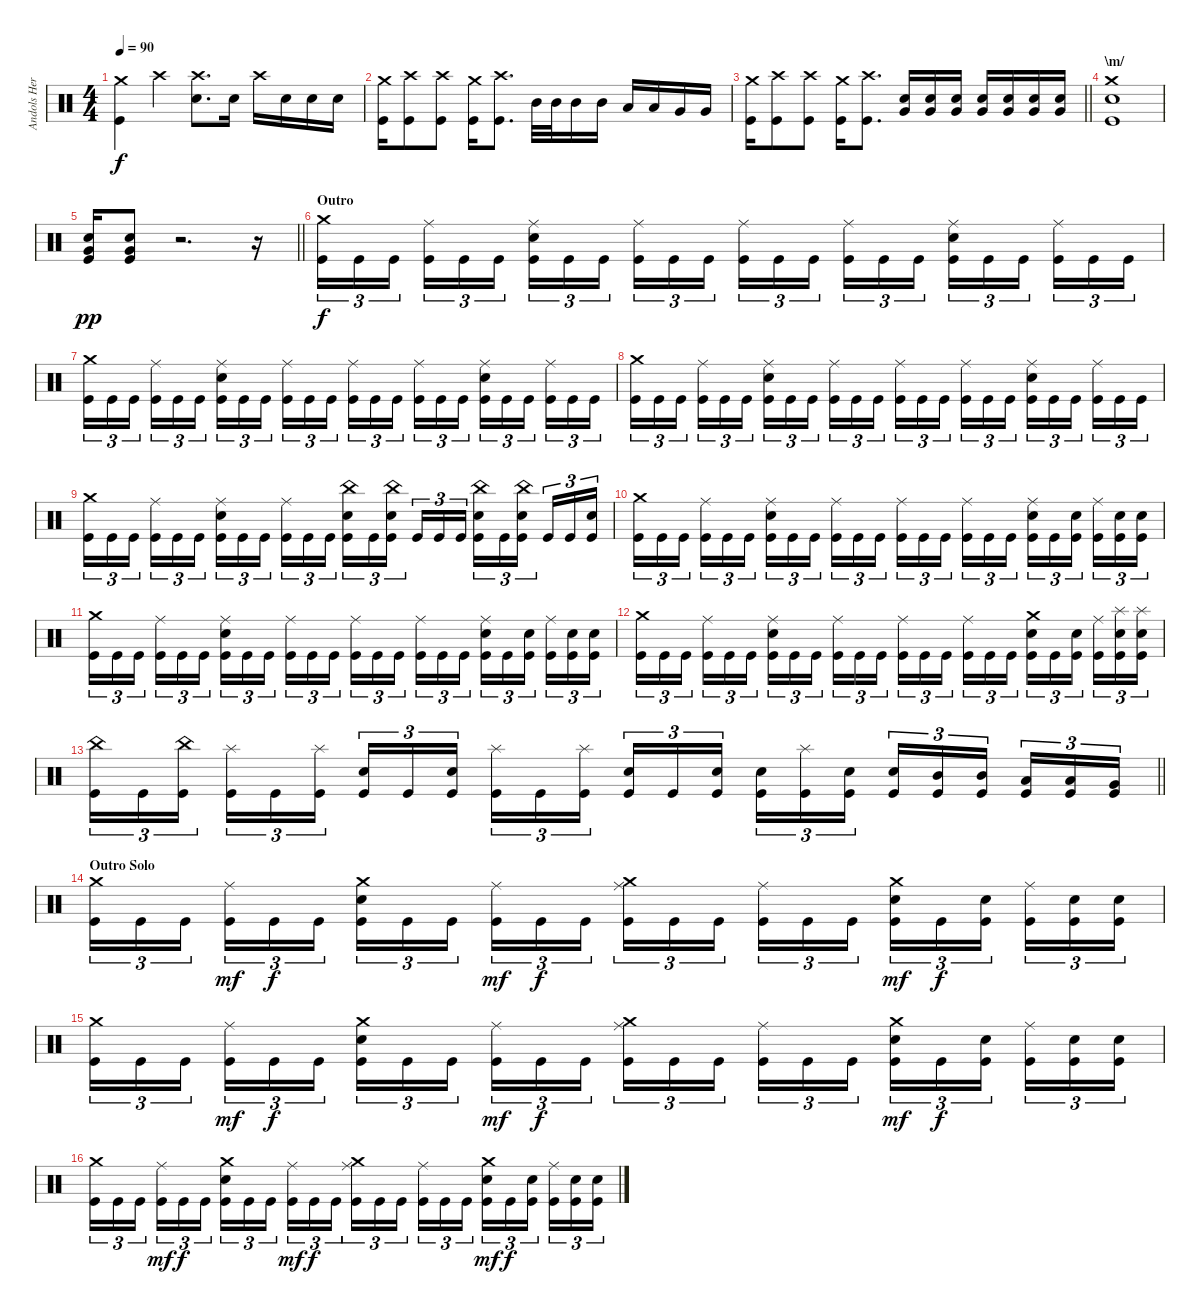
\track ("Andols Herrick" "Andols Her") {instrument percussion}
\staff
\articulation defaults
\ts (4 4)
\tempo 90
\clef neutral
\ks c
("Crash medium (hit)" "Kick (hit)").4{dy f} "Crash high (hit)".4 ("Crash high (hit)" "Electric Snare (hit)").8{d} "Electric Snare (hit)".16 "Crash high (hit)".16 "Electric Snare (hit)".16 "Electric Snare (hit)".16 "Electric Snare (hit)".16 |
("Crash medium (hit)" "Kick (hit)").16 ("Crash high (hit)" "Kick (hit)").8 ("Crash high (hit)" "Kick (hit)").8 ("Crash medium (hit)" "Kick (hit)").16 ("Crash high (hit)" "Kick (hit)").8{d} "Mid Tom (hit)".32 "Mid Tom (hit)".32 "Mid Tom (hit)".16 "Mid Tom (hit)".16 "Low Tom (hit)".16 "Low Tom (hit)".16 "Very Low Tom (hit)".16 "Very Low Tom (hit)".16 |
\barLineRight lightlight
("Crash medium (hit)" "Kick (hit)").16 ("Crash high (hit)" "Kick (hit)").8 ("Crash high (hit)" "Kick (hit)").8 ("Crash medium (hit)" "Kick (hit)").16 ("Crash high (hit)" "Kick (hit)").8{d} ("Electric Snare (hit)" "Very Low Tom (hit)").16 ("Electric Snare (hit)" "Very Low Tom (hit)").16 ("Electric Snare (hit)" "Very Low Tom (hit)").16 ("Electric Snare (hit)" "Very Low Tom (hit)").16 ("Electric Snare (hit)" "Very Low Tom (hit)").16 ("Electric Snare (hit)" "Very Low Tom (hit)").16 ("Electric Snare (hit)" "Very Low Tom (hit)").16 |
\section ("" "\\m/")
("Crash medium (hit)" "Electric Snare (hit)" "Kick (hit)").1 |
\barLineRight lightlight
("Electric Snare (hit)" "Very Low Tom (hit)" "Kick (hit)").16{dy pp} ("Electric Snare (hit)" "Very Low Tom (hit)" "Kick (hit)").8 r.2{d} r.16 |
\section ("" "Outro")
("Crash medium (hit)" "Kick (hit)").16{tu (3 2) dy f} "Kick (hit)".16{tu (3 2)} "Kick (hit)".16{tu (3 2) beam splitsecondary} ("Ride (middle)" "Kick (hit)").16{tu (3 2)} "Kick (hit)".16{tu (3 2)} "Kick (hit)".16{tu (3 2)} ("Ride (middle)" "Electric Snare (hit)" "Kick (hit)").16{tu (3 2)} "Kick (hit)".16{tu (3 2)} "Kick (hit)".16{tu (3 2) beam splitsecondary} ("Ride (middle)" "Kick (hit)").16{tu (3 2)} "Kick (hit)".16{tu (3 2)} "Kick (hit)".16{tu (3 2)} ("Ride (middle)" "Kick (hit)").16{tu (3 2)} "Kick (hit)".16{tu (3 2)} "Kick (hit)".16{tu (3 2) beam splitsecondary} ("Ride (middle)" "Kick (hit)").16{tu (3 2)} "Kick (hit)".16{tu (3 2)} "Kick (hit)".16{tu (3 2)} ("Ride (middle)" "Electric Snare (hit)" "Kick (hit)").16{tu (3 2)} "Kick (hit)".16{tu (3 2)} "Kick (hit)".16{tu (3 2) beam splitsecondary} ("Ride (middle)" "Kick (hit)").16{tu (3 2)} "Kick (hit)".16{tu (3 2)} "Kick (hit)".16{tu (3 2)} |
("Crash medium (hit)" "Kick (hit)").16{tu (3 2)} "Kick (hit)".16{tu (3 2)} "Kick (hit)".16{tu (3 2) beam splitsecondary} ("Ride (middle)" "Kick (hit)").16{tu (3 2)} "Kick (hit)".16{tu (3 2)} "Kick (hit)".16{tu (3 2)} ("Ride (middle)" "Electric Snare (hit)" "Kick (hit)").16{tu (3 2)} "Kick (hit)".16{tu (3 2)} "Kick (hit)".16{tu (3 2) beam splitsecondary} ("Ride (middle)" "Kick (hit)").16{tu (3 2)} "Kick (hit)".16{tu (3 2)} "Kick (hit)".16{tu (3 2)} ("Ride (middle)" "Kick (hit)").16{tu (3 2)} "Kick (hit)".16{tu (3 2)} "Kick (hit)".16{tu (3 2) beam splitsecondary} ("Ride (middle)" "Kick (hit)").16{tu (3 2)} "Kick (hit)".16{tu (3 2)} "Kick (hit)".16{tu (3 2)} ("Ride (middle)" "Electric Snare (hit)" "Kick (hit)").16{tu (3 2)} "Kick (hit)".16{tu (3 2)} "Kick (hit)".16{tu (3 2) beam splitsecondary} ("Ride (middle)" "Kick (hit)").16{tu (3 2)} "Kick (hit)".16{tu (3 2)} "Kick (hit)".16{tu (3 2)} |
("Crash medium (hit)" "Kick (hit)").16{tu (3 2)} "Kick (hit)".16{tu (3 2)} "Kick (hit)".16{tu (3 2) beam splitsecondary} ("Ride (middle)" "Kick (hit)").16{tu (3 2)} "Kick (hit)".16{tu (3 2)} "Kick (hit)".16{tu (3 2)} ("Ride (middle)" "Electric Snare (hit)" "Kick (hit)").16{tu (3 2)} "Kick (hit)".16{tu (3 2)} "Kick (hit)".16{tu (3 2) beam splitsecondary} ("Ride (middle)" "Kick (hit)").16{tu (3 2)} "Kick (hit)".16{tu (3 2)} "Kick (hit)".16{tu (3 2)} ("Ride (middle)" "Kick (hit)").16{tu (3 2)} "Kick (hit)".16{tu (3 2)} "Kick (hit)".16{tu (3 2) beam splitsecondary} ("Ride (middle)" "Kick (hit)").16{tu (3 2)} "Kick (hit)".16{tu (3 2)} "Kick (hit)".16{tu (3 2)} ("Ride (middle)" "Electric Snare (hit)" "Kick (hit)").16{tu (3 2)} "Kick (hit)".16{tu (3 2)} "Kick (hit)".16{tu (3 2) beam splitsecondary} ("Ride (middle)" "Kick (hit)").16{tu (3 2)} "Kick (hit)".16{tu (3 2)} "Kick (hit)".16{tu (3 2)} |
("Crash medium (hit)" "Kick (hit)").16{tu (3 2)} "Kick (hit)".16{tu (3 2)} "Kick (hit)".16{tu (3 2) beam splitsecondary} ("Ride (middle)" "Kick (hit)").16{tu (3 2)} "Kick (hit)".16{tu (3 2)} "Kick (hit)".16{tu (3 2)} ("Ride (middle)" "Electric Snare (hit)" "Kick (hit)").16{tu (3 2)} "Kick (hit)".16{tu (3 2)} "Kick (hit)".16{tu (3 2) beam splitsecondary} ("Ride (middle)" "Kick (hit)").16{tu (3 2)} "Kick (hit)".16{tu (3 2)} "Kick (hit)".16{tu (3 2)} ("China (hit)" "Electric Snare (hit)" "Kick (hit)").16{tu (3 2)} "Kick (hit)".16{tu (3 2)} ("China (hit)" "Electric Snare (hit)" "Kick (hit)").16{tu (3 2) beam splitsecondary} "Kick (hit)".16{tu (3 2)} "Kick (hit)".16{tu (3 2)} "Kick (hit)".16{tu (3 2)} ("China (hit)" "Electric Snare (hit)" "Kick (hit)").16{tu (3 2)} "Kick (hit)".16{tu (3 2)} ("China (hit)" "Electric Snare (hit)" "Kick (hit)").16{tu (3 2) beam splitsecondary} "Kick (hit)".16{tu (3 2)} "Kick (hit)".16{tu (3 2)} ("Electric Snare (hit)" "Kick (hit)").16{tu (3 2)} |
("Crash medium (hit)" "Kick (hit)").16{tu (3 2)} "Kick (hit)".16{tu (3 2)} "Kick (hit)".16{tu (3 2) beam splitsecondary} ("Ride (middle)" "Kick (hit)").16{tu (3 2)} "Kick (hit)".16{tu (3 2)} "Kick (hit)".16{tu (3 2)} ("Ride (middle)" "Electric Snare (hit)" "Kick (hit)").16{tu (3 2)} "Kick (hit)".16{tu (3 2)} "Kick (hit)".16{tu (3 2) beam splitsecondary} ("Ride (middle)" "Kick (hit)").16{tu (3 2)} "Kick (hit)".16{tu (3 2)} "Kick (hit)".16{tu (3 2)} ("Ride (middle)" "Kick (hit)").16{tu (3 2)} "Kick (hit)".16{tu (3 2)} "Kick (hit)".16{tu (3 2) beam splitsecondary} ("Ride (middle)" "Kick (hit)").16{tu (3 2)} "Kick (hit)".16{tu (3 2)} "Kick (hit)".16{tu (3 2)} ("Ride (middle)" "Electric Snare (hit)" "Kick (hit)").16{tu (3 2)} "Kick (hit)".16{tu (3 2)} ("Electric Snare (hit)" "Kick (hit)").16{tu (3 2) beam splitsecondary} ("Ride (middle)" "Kick (hit)").16{tu (3 2)} ("Electric Snare (hit)" "Kick (hit)").16{tu (3 2)} ("Electric Snare (hit)" "Kick (hit)").16{tu (3 2)} |
("Crash medium (hit)" "Kick (hit)").16{tu (3 2)} "Kick (hit)".16{tu (3 2)} "Kick (hit)".16{tu (3 2) beam splitsecondary} ("Ride (middle)" "Kick (hit)").16{tu (3 2)} "Kick (hit)".16{tu (3 2)} "Kick (hit)".16{tu (3 2)} ("Ride (middle)" "Electric Snare (hit)" "Kick (hit)").16{tu (3 2)} "Kick (hit)".16{tu (3 2)} "Kick (hit)".16{tu (3 2) beam splitsecondary} ("Ride (middle)" "Kick (hit)").16{tu (3 2)} "Kick (hit)".16{tu (3 2)} "Kick (hit)".16{tu (3 2)} ("Ride (middle)" "Kick (hit)").16{tu (3 2)} "Kick (hit)".16{tu (3 2)} "Kick (hit)".16{tu (3 2) beam splitsecondary} ("Ride (middle)" "Kick (hit)").16{tu (3 2)} "Kick (hit)".16{tu (3 2)} "Kick (hit)".16{tu (3 2)} ("Ride (middle)" "Electric Snare (hit)" "Kick (hit)").16{tu (3 2)} "Kick (hit)".16{tu (3 2)} ("Electric Snare (hit)" "Kick (hit)").16{tu (3 2) beam splitsecondary} ("Ride (middle)" "Kick (hit)").16{tu (3 2)} ("Electric Snare (hit)" "Kick (hit)").16{tu (3 2)} ("Electric Snare (hit)" "Kick (hit)").16{tu (3 2)} |
("Crash medium (hit)" "Kick (hit)").16{tu (3 2)} "Kick (hit)".16{tu (3 2)} "Kick (hit)".16{tu (3 2) beam splitsecondary} ("Ride (middle)" "Kick (hit)").16{tu (3 2)} "Kick (hit)".16{tu (3 2)} "Kick (hit)".16{tu (3 2)} ("Ride (middle)" "Electric Snare (hit)" "Kick (hit)").16{tu (3 2)} "Kick (hit)".16{tu (3 2)} "Kick (hit)".16{tu (3 2) beam splitsecondary} ("Ride (middle)" "Kick (hit)").16{tu (3 2)} "Kick (hit)".16{tu (3 2)} "Kick (hit)".16{tu (3 2)} ("Ride (middle)" "Kick (hit)").16{tu (3 2)} "Kick (hit)".16{tu (3 2)} "Kick (hit)".16{tu (3 2) beam splitsecondary} ("Ride (middle)" "Kick (hit)").16{tu (3 2)} "Kick (hit)".16{tu (3 2)} "Kick (hit)".16{tu (3 2)} ("Crash medium (hit)" "Electric Snare (hit)" "Kick (hit)").16{tu (3 2)} "Kick (hit)".16{tu (3 2)} ("Electric Snare (hit)" "Kick (hit)").16{tu (3 2) beam splitsecondary} ("Ride (middle)" "Kick (hit)").16{tu (3 2)} ("Splash (hit)" "Electric Snare (hit)" "Kick (hit)").16{tu (3 2)} ("Splash (hit)" "Electric Snare (hit)" "Kick (hit)").16{tu (3 2)} |
\barLineRight lightlight
("China (hit)" "Kick (hit)").16{tu (3 2)} "Kick (hit)".16{tu (3 2)} ("China (hit)" "Kick (hit)").16{tu (3 2) beam splitsecondary} ("Splash (hit)" "Kick (hit)").16{tu (3 2)} "Kick (hit)".16{tu (3 2)} ("Splash (hit)" "Kick (hit)").16{tu (3 2)} ("Electric Snare (hit)" "Kick (hit)").16{tu (3 2)} "Kick (hit)".16{tu (3 2)} ("Electric Snare (hit)" "Kick (hit)").16{tu (3 2) beam splitsecondary} ("Splash (hit)" "Kick (hit)").16{tu (3 2)} "Kick (hit)".16{tu (3 2)} ("Splash (hit)" "Kick (hit)").16{tu (3 2)} ("Electric Snare (hit)" "Kick (hit)").16{tu (3 2)} "Kick (hit)".16{tu (3 2)} ("Electric Snare (hit)" "Kick (hit)").16{tu (3 2) beam splitsecondary} ("Electric Snare (hit)" "Kick (hit)").16{tu (3 2)} ("Splash (hit)" "Kick (hit)").16{tu (3 2)} ("Electric Snare (hit)" "Kick (hit)").16{tu (3 2)} ("Electric Snare (hit)" "Kick (hit)").16{tu (3 2)} ("Mid Tom (hit)" "Kick (hit)").16{tu (3 2)} ("Mid Tom (hit)" "Kick (hit)").16{tu (3 2) beam splitsecondary} ("Low Tom (hit)" "Kick (hit)").16{tu (3 2)} ("Low Tom (hit)" "Kick (hit)").16{tu (3 2)} ("Very Low Tom (hit)" "Kick (hit)").16{tu (3 2)} |
\section ("" "Outro Solo")
("Crash medium (hit)" "Kick (hit)").16{tu (3 2)} "Kick (hit)".16{tu (3 2)} "Kick (hit)".16{tu (3 2) beam splitsecondary} ("Ride (middle)" "Kick (hit)").16{tu (3 2) dy mf} "Kick (hit)".16{tu (3 2) dy f} "Kick (hit)".16{tu (3 2)} ("Crash medium (hit)" "Electric Snare (hit)" "Kick (hit)").16{tu (3 2)} "Kick (hit)".16{tu (3 2)} "Kick (hit)".16{tu (3 2) beam splitsecondary} ("Ride (middle)" "Kick (hit)").16{tu (3 2) dy mf} "Kick (hit)".16{tu (3 2) dy f} "Kick (hit)".16{tu (3 2)} ("Crash medium (hit)" "Ride (middle)" "Kick (hit)").16{tu (3 2)} "Kick (hit)".16{tu (3 2)} "Kick (hit)".16{tu (3 2) beam splitsecondary} ("Ride (middle)" "Kick (hit)").16{tu (3 2)} "Kick (hit)".16{tu (3 2)} "Kick (hit)".16{tu (3 2)} ("Crash medium (hit)" "Electric Snare (hit)" "Kick (hit)").16{tu (3 2) dy mf} "Kick (hit)".16{tu (3 2) dy f} ("Electric Snare (hit)" "Kick (hit)").16{tu (3 2) beam splitsecondary} ("Ride (middle)" "Kick (hit)").16{tu (3 2)} ("Electric Snare (hit)" "Kick (hit)").16{tu (3 2)} ("Electric Snare (hit)" "Kick (hit)").16{tu (3 2)} |
("Crash medium (hit)" "Kick (hit)").16{tu (3 2)} "Kick (hit)".16{tu (3 2)} "Kick (hit)".16{tu (3 2) beam splitsecondary} ("Ride (middle)" "Kick (hit)").16{tu (3 2) dy mf} "Kick (hit)".16{tu (3 2) dy f} "Kick (hit)".16{tu (3 2)} ("Crash medium (hit)" "Electric Snare (hit)" "Kick (hit)").16{tu (3 2)} "Kick (hit)".16{tu (3 2)} "Kick (hit)".16{tu (3 2) beam splitsecondary} ("Ride (middle)" "Kick (hit)").16{tu (3 2) dy mf} "Kick (hit)".16{tu (3 2) dy f} "Kick (hit)".16{tu (3 2)} ("Crash medium (hit)" "Ride (middle)" "Kick (hit)").16{tu (3 2)} "Kick (hit)".16{tu (3 2)} "Kick (hit)".16{tu (3 2) beam splitsecondary} ("Ride (middle)" "Kick (hit)").16{tu (3 2)} "Kick (hit)".16{tu (3 2)} "Kick (hit)".16{tu (3 2)} ("Crash medium (hit)" "Electric Snare (hit)" "Kick (hit)").16{tu (3 2) dy mf} "Kick (hit)".16{tu (3 2) dy f} ("Electric Snare (hit)" "Kick (hit)").16{tu (3 2) beam splitsecondary} ("Ride (middle)" "Kick (hit)").16{tu (3 2)} ("Electric Snare (hit)" "Kick (hit)").16{tu (3 2)} ("Electric Snare (hit)" "Kick (hit)").16{tu (3 2)} |
("Crash medium (hit)" "Kick (hit)").16{tu (3 2)} "Kick (hit)".16{tu (3 2)} "Kick (hit)".16{tu (3 2) beam splitsecondary} ("Ride (middle)" "Kick (hit)").16{tu (3 2) dy mf} "Kick (hit)".16{tu (3 2) dy f} "Kick (hit)".16{tu (3 2)} ("Crash medium (hit)" "Electric Snare (hit)" "Kick (hit)").16{tu (3 2)} "Kick (hit)".16{tu (3 2)} "Kick (hit)".16{tu (3 2) beam splitsecondary} ("Ride (middle)" "Kick (hit)").16{tu (3 2) dy mf} "Kick (hit)".16{tu (3 2) dy f} "Kick (hit)".16{tu (3 2)} ("Crash medium (hit)" "Ride (middle)" "Kick (hit)").16{tu (3 2)} "Kick (hit)".16{tu (3 2)} "Kick (hit)".16{tu (3 2) beam splitsecondary} ("Ride (middle)" "Kick (hit)").16{tu (3 2)} "Kick (hit)".16{tu (3 2)} "Kick (hit)".16{tu (3 2)} ("Crash medium (hit)" "Electric Snare (hit)" "Kick (hit)").16{tu (3 2) dy mf} "Kick (hit)".16{tu (3 2) dy f} ("Electric Snare (hit)" "Kick (hit)").16{tu (3 2) beam splitsecondary} ("Ride (middle)" "Kick (hit)").16{tu (3 2)} ("Electric Snare (hit)" "Kick (hit)").16{tu (3 2)} ("Electric Snare (hit)" "Kick (hit)").16{tu (3 2)}
